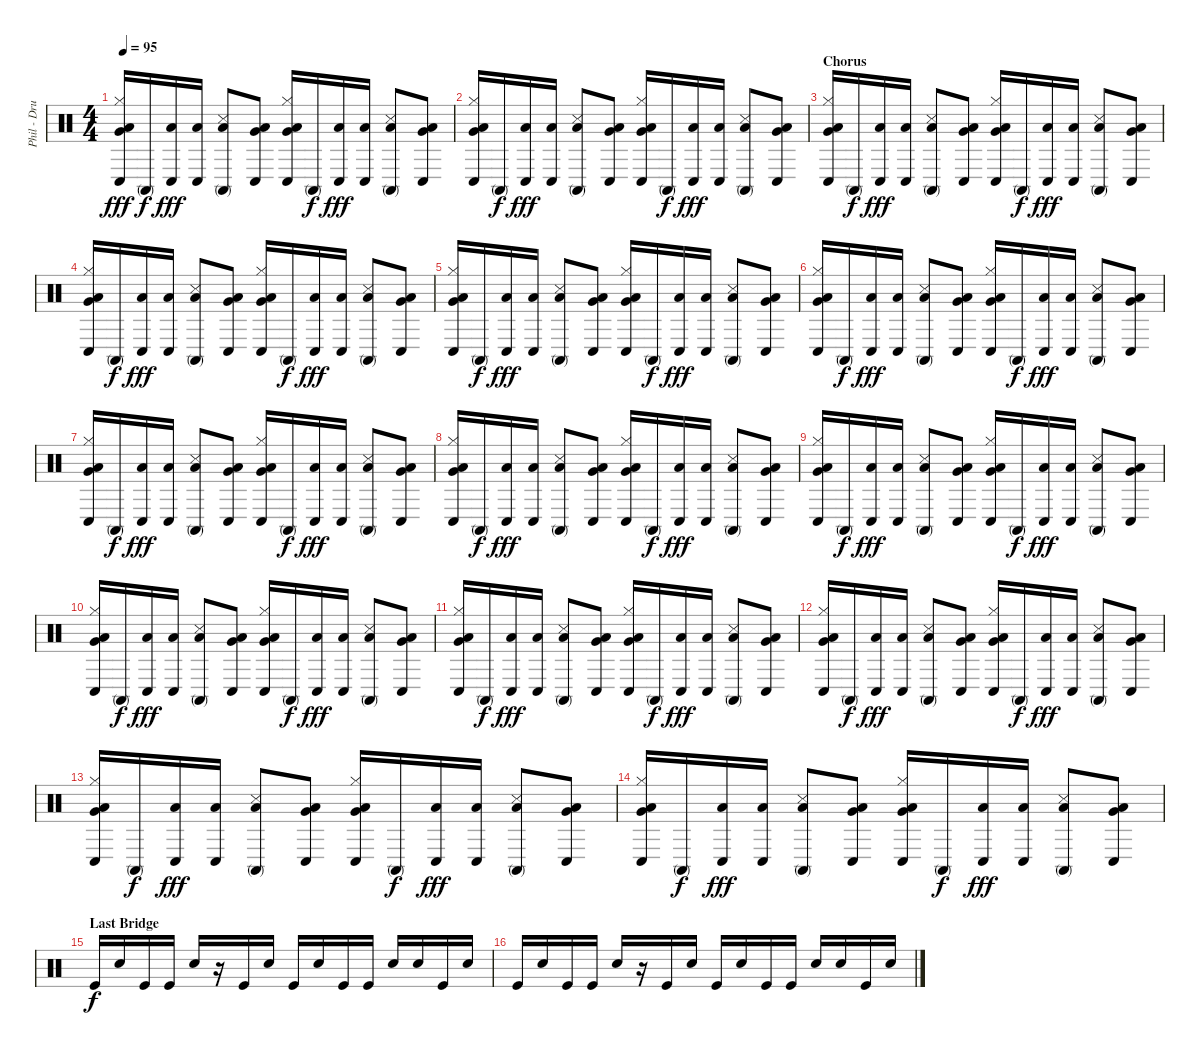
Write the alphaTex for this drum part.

\track ("Phil - Drums" "Phil - Dru") {instrument percussion}
\staff {score}
\articulation defaults
\ts (4 4)
\tempo 95
\clef neutral
\ks c
("Hi-Hat (closed)" "Conga low (hit)" "Low Floor Tom (hit)" "Very Low Tom (hit)").16{dy fff} "Conga high (mute)".16{dy f} ("Conga low (hit)" "Low Tom (hit)").16{dy fff} ("Conga low (hit)" "Low Tom (hit)").16 ("Conga high (mute)" "Snare (side stick) 3" "Low Tom (hit)").8 ("Conga low (hit)" "Low Floor Tom (hit)" "Very Low Tom (hit)").8 ("Hi-Hat (closed)" "Conga low (hit)" "Low Floor Tom (hit)" "Very Low Tom (hit)").16 "Conga high (mute)".16{dy f} ("Conga low (hit)" "Low Tom (hit)").16{dy fff} ("Conga low (hit)" "Low Tom (hit)").16 ("Conga high (mute)" "Snare (side stick) 3" "Low Tom (hit)").8 ("Conga low (hit)" "Low Floor Tom (hit)" "Very Low Tom (hit)").8 |
("Hi-Hat (closed)" "Conga low (hit)" "Low Floor Tom (hit)" "Very Low Tom (hit)").16 "Conga high (mute)".16{dy f} ("Conga low (hit)" "Low Tom (hit)").16{dy fff} ("Conga low (hit)" "Low Tom (hit)").16 ("Conga high (mute)" "Snare (side stick) 3" "Low Tom (hit)").8 ("Conga low (hit)" "Low Floor Tom (hit)" "Very Low Tom (hit)").8 ("Hi-Hat (closed)" "Conga low (hit)" "Low Floor Tom (hit)" "Very Low Tom (hit)").16 "Conga high (mute)".16{dy f} ("Conga low (hit)" "Low Tom (hit)").16{dy fff} ("Conga low (hit)" "Low Tom (hit)").16 ("Conga high (mute)" "Snare (side stick) 3" "Low Tom (hit)").8 ("Conga low (hit)" "Low Floor Tom (hit)" "Very Low Tom (hit)").8 |
\section ("" "Chorus")
("Hi-Hat (closed)" "Conga low (hit)" "Low Floor Tom (hit)" "Very Low Tom (hit)").16 "Conga high (mute)".16{dy f} ("Conga low (hit)" "Low Tom (hit)").16{dy fff} ("Conga low (hit)" "Low Tom (hit)").16 ("Conga high (mute)" "Snare (side stick) 3" "Low Tom (hit)").8 ("Conga low (hit)" "Low Floor Tom (hit)" "Very Low Tom (hit)").8 ("Hi-Hat (closed)" "Conga low (hit)" "Low Floor Tom (hit)" "Very Low Tom (hit)").16 "Conga high (mute)".16{dy f} ("Conga low (hit)" "Low Tom (hit)").16{dy fff} ("Conga low (hit)" "Low Tom (hit)").16 ("Conga high (mute)" "Snare (side stick) 3" "Low Tom (hit)").8 ("Conga low (hit)" "Low Floor Tom (hit)" "Very Low Tom (hit)").8 |
("Hi-Hat (closed)" "Conga low (hit)" "Low Floor Tom (hit)" "Very Low Tom (hit)").16 "Conga high (mute)".16{dy f} ("Conga low (hit)" "Low Tom (hit)").16{dy fff} ("Conga low (hit)" "Low Tom (hit)").16 ("Conga high (mute)" "Snare (side stick) 3" "Low Tom (hit)").8 ("Conga low (hit)" "Low Floor Tom (hit)" "Very Low Tom (hit)").8 ("Hi-Hat (closed)" "Conga low (hit)" "Low Floor Tom (hit)" "Very Low Tom (hit)").16 "Conga high (mute)".16{dy f} ("Conga low (hit)" "Low Tom (hit)").16{dy fff} ("Conga low (hit)" "Low Tom (hit)").16 ("Conga high (mute)" "Snare (side stick) 3" "Low Tom (hit)").8 ("Conga low (hit)" "Low Floor Tom (hit)" "Very Low Tom (hit)").8 |
("Hi-Hat (closed)" "Conga low (hit)" "Low Floor Tom (hit)" "Very Low Tom (hit)").16 "Conga high (mute)".16{dy f} ("Conga low (hit)" "Low Tom (hit)").16{dy fff} ("Conga low (hit)" "Low Tom (hit)").16 ("Conga high (mute)" "Snare (side stick) 3" "Low Tom (hit)").8 ("Conga low (hit)" "Low Floor Tom (hit)" "Very Low Tom (hit)").8 ("Hi-Hat (closed)" "Conga low (hit)" "Low Floor Tom (hit)" "Very Low Tom (hit)").16 "Conga high (mute)".16{dy f} ("Conga low (hit)" "Low Tom (hit)").16{dy fff} ("Conga low (hit)" "Low Tom (hit)").16 ("Conga high (mute)" "Snare (side stick) 3" "Low Tom (hit)").8 ("Conga low (hit)" "Low Floor Tom (hit)" "Very Low Tom (hit)").8 |
("Hi-Hat (closed)" "Conga low (hit)" "Low Floor Tom (hit)" "Very Low Tom (hit)").16 "Conga high (mute)".16{dy f} ("Conga low (hit)" "Low Tom (hit)").16{dy fff} ("Conga low (hit)" "Low Tom (hit)").16 ("Conga high (mute)" "Snare (side stick) 3" "Low Tom (hit)").8 ("Conga low (hit)" "Low Floor Tom (hit)" "Very Low Tom (hit)").8 ("Hi-Hat (closed)" "Conga low (hit)" "Low Floor Tom (hit)" "Very Low Tom (hit)").16 "Conga high (mute)".16{dy f} ("Conga low (hit)" "Low Tom (hit)").16{dy fff} ("Conga low (hit)" "Low Tom (hit)").16 ("Conga high (mute)" "Snare (side stick) 3" "Low Tom (hit)").8 ("Conga low (hit)" "Low Floor Tom (hit)" "Very Low Tom (hit)").8 |
("Hi-Hat (closed)" "Conga low (hit)" "Low Floor Tom (hit)" "Very Low Tom (hit)").16 "Conga high (mute)".16{dy f} ("Conga low (hit)" "Low Tom (hit)").16{dy fff} ("Conga low (hit)" "Low Tom (hit)").16 ("Conga high (mute)" "Snare (side stick) 3" "Low Tom (hit)").8 ("Conga low (hit)" "Low Floor Tom (hit)" "Very Low Tom (hit)").8 ("Hi-Hat (closed)" "Conga low (hit)" "Low Floor Tom (hit)" "Very Low Tom (hit)").16 "Conga high (mute)".16{dy f} ("Conga low (hit)" "Low Tom (hit)").16{dy fff} ("Conga low (hit)" "Low Tom (hit)").16 ("Conga high (mute)" "Snare (side stick) 3" "Low Tom (hit)").8 ("Conga low (hit)" "Low Floor Tom (hit)" "Very Low Tom (hit)").8 |
("Hi-Hat (closed)" "Conga low (hit)" "Low Floor Tom (hit)" "Very Low Tom (hit)").16 "Conga high (mute)".16{dy f} ("Conga low (hit)" "Low Tom (hit)").16{dy fff} ("Conga low (hit)" "Low Tom (hit)").16 ("Conga high (mute)" "Snare (side stick) 3" "Low Tom (hit)").8 ("Conga low (hit)" "Low Floor Tom (hit)" "Very Low Tom (hit)").8 ("Hi-Hat (closed)" "Conga low (hit)" "Low Floor Tom (hit)" "Very Low Tom (hit)").16 "Conga high (mute)".16{dy f} ("Conga low (hit)" "Low Tom (hit)").16{dy fff} ("Conga low (hit)" "Low Tom (hit)").16 ("Conga high (mute)" "Snare (side stick) 3" "Low Tom (hit)").8 ("Conga low (hit)" "Low Floor Tom (hit)" "Very Low Tom (hit)").8 |
("Hi-Hat (closed)" "Conga low (hit)" "Low Floor Tom (hit)" "Very Low Tom (hit)").16 "Conga high (mute)".16{dy f} ("Conga low (hit)" "Low Tom (hit)").16{dy fff} ("Conga low (hit)" "Low Tom (hit)").16 ("Conga high (mute)" "Snare (side stick) 3" "Low Tom (hit)").8 ("Conga low (hit)" "Low Floor Tom (hit)" "Very Low Tom (hit)").8 ("Hi-Hat (closed)" "Conga low (hit)" "Low Floor Tom (hit)" "Very Low Tom (hit)").16 "Conga high (mute)".16{dy f} ("Conga low (hit)" "Low Tom (hit)").16{dy fff} ("Conga low (hit)" "Low Tom (hit)").16 ("Conga high (mute)" "Snare (side stick) 3" "Low Tom (hit)").8 ("Conga low (hit)" "Low Floor Tom (hit)" "Very Low Tom (hit)").8 |
("Hi-Hat (closed)" "Conga low (hit)" "Low Floor Tom (hit)" "Very Low Tom (hit)").16 "Conga high (mute)".16{dy f} ("Conga low (hit)" "Low Tom (hit)").16{dy fff} ("Conga low (hit)" "Low Tom (hit)").16 ("Conga high (mute)" "Snare (side stick) 3" "Low Tom (hit)").8 ("Conga low (hit)" "Low Floor Tom (hit)" "Very Low Tom (hit)").8 ("Hi-Hat (closed)" "Conga low (hit)" "Low Floor Tom (hit)" "Very Low Tom (hit)").16 "Conga high (mute)".16{dy f} ("Conga low (hit)" "Low Tom (hit)").16{dy fff} ("Conga low (hit)" "Low Tom (hit)").16 ("Conga high (mute)" "Snare (side stick) 3" "Low Tom (hit)").8 ("Conga low (hit)" "Low Floor Tom (hit)" "Very Low Tom (hit)").8 |
("Hi-Hat (closed)" "Conga low (hit)" "Low Floor Tom (hit)" "Very Low Tom (hit)").16 "Conga high (mute)".16{dy f} ("Conga low (hit)" "Low Tom (hit)").16{dy fff} ("Conga low (hit)" "Low Tom (hit)").16 ("Conga high (mute)" "Snare (side stick) 3" "Low Tom (hit)").8 ("Conga low (hit)" "Low Floor Tom (hit)" "Very Low Tom (hit)").8 ("Hi-Hat (closed)" "Conga low (hit)" "Low Floor Tom (hit)" "Very Low Tom (hit)").16 "Conga high (mute)".16{dy f} ("Conga low (hit)" "Low Tom (hit)").16{dy fff} ("Conga low (hit)" "Low Tom (hit)").16 ("Conga high (mute)" "Snare (side stick) 3" "Low Tom (hit)").8 ("Conga low (hit)" "Low Floor Tom (hit)" "Very Low Tom (hit)").8 |
("Hi-Hat (closed)" "Conga low (hit)" "Low Floor Tom (hit)" "Very Low Tom (hit)").16 "Conga high (mute)".16{dy f} ("Conga low (hit)" "Low Tom (hit)").16{dy fff} ("Conga low (hit)" "Low Tom (hit)").16 ("Conga high (mute)" "Snare (side stick) 3" "Low Tom (hit)").8 ("Conga low (hit)" "Low Floor Tom (hit)" "Very Low Tom (hit)").8 ("Hi-Hat (closed)" "Conga low (hit)" "Low Floor Tom (hit)" "Very Low Tom (hit)").16 "Conga high (mute)".16{dy f} ("Conga low (hit)" "Low Tom (hit)").16{dy fff} ("Conga low (hit)" "Low Tom (hit)").16 ("Conga high (mute)" "Snare (side stick) 3" "Low Tom (hit)").8 ("Conga low (hit)" "Low Floor Tom (hit)" "Very Low Tom (hit)").8 |
("Hi-Hat (closed)" "Conga low (hit)" "Low Floor Tom (hit)" "Very Low Tom (hit)").16 "Conga high (mute)".16{dy f} ("Conga low (hit)" "Low Tom (hit)").16{dy fff} ("Conga low (hit)" "Low Tom (hit)").16 ("Conga high (mute)" "Snare (side stick) 3" "Low Tom (hit)").8 ("Conga low (hit)" "Low Floor Tom (hit)" "Very Low Tom (hit)").8 ("Hi-Hat (closed)" "Conga low (hit)" "Low Floor Tom (hit)" "Very Low Tom (hit)").16 "Conga high (mute)".16{dy f} ("Conga low (hit)" "Low Tom (hit)").16{dy fff} ("Conga low (hit)" "Low Tom (hit)").16 ("Conga high (mute)" "Snare (side stick) 3" "Low Tom (hit)").8 ("Conga low (hit)" "Low Floor Tom (hit)" "Very Low Tom (hit)").8 |
("Hi-Hat (closed)" "Conga low (hit)" "Low Floor Tom (hit)" "Very Low Tom (hit)").16 "Conga high (mute)".16{dy f} ("Conga low (hit)" "Low Tom (hit)").16{dy fff} ("Conga low (hit)" "Low Tom (hit)").16 ("Conga high (mute)" "Snare (side stick) 3" "Low Tom (hit)").8 ("Conga low (hit)" "Low Floor Tom (hit)" "Very Low Tom (hit)").8 ("Hi-Hat (closed)" "Conga low (hit)" "Low Floor Tom (hit)" "Very Low Tom (hit)").16 "Conga high (mute)".16{dy f} ("Conga low (hit)" "Low Tom (hit)").16{dy fff} ("Conga low (hit)" "Low Tom (hit)").16 ("Conga high (mute)" "Snare (side stick) 3" "Low Tom (hit)").8 ("Conga low (hit)" "Low Floor Tom (hit)" "Very Low Tom (hit)").8 |
\section ("" "Last Bridge")
"Kick (hit)".16{dy f} "Snare (hit) 2".16 "Kick (hit)".16 "Kick (hit)".16 "Snare (hit) 2".16 r.16 "Kick (hit)".16 "Snare (hit) 2".16 "Kick (hit)".16 "Snare (hit) 2".16 "Kick (hit)".16 "Kick (hit)".16 "Snare (hit) 2".16 "Snare (hit) 2".16 "Kick (hit)".16 "Snare (hit) 2".16 |
"Kick (hit)".16 "Snare (hit) 2".16 "Kick (hit)".16 "Kick (hit)".16 "Snare (hit) 2".16 r.16 "Kick (hit)".16 "Snare (hit) 2".16 "Kick (hit)".16 "Snare (hit) 2".16 "Kick (hit)".16 "Kick (hit)".16 "Snare (hit) 2".16 "Snare (hit) 2".16 "Kick (hit)".16 "Snare (hit) 2".16
